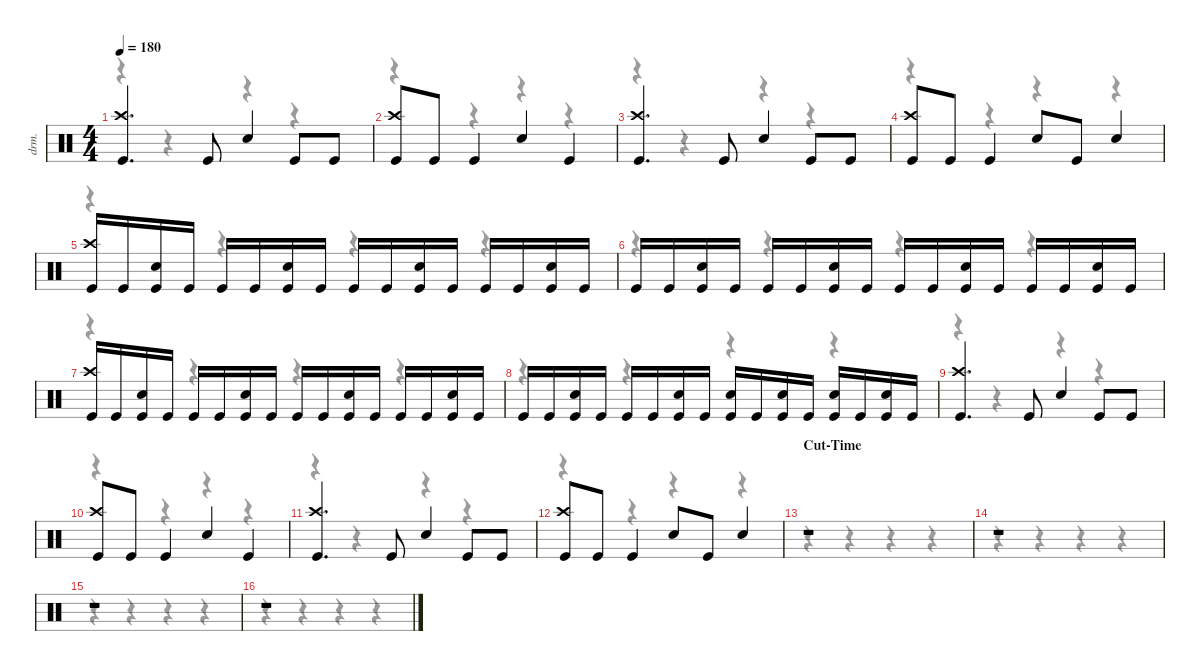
\defaultSystemsLayout 4
\hideDynamics
\bracketExtendMode nobrackets
\track ("Drums" "drm.") {instrument percussion}
\staff {score}
\articulation defaults
\voice
\ts (4 4)
\tempo 180
\clef neutral
\ks c
("Crash high (hit)" "Kick (hit)").4{d dy f} "Kick (hit)".8 "Snare (hit) 2".4 "Kick (hit)".8 "Kick (hit)".8 |
("Crash high (hit)" "Kick (hit)").8 "Kick (hit)".8 "Kick (hit)".4 "Snare (hit) 2".4 "Kick (hit)".4 |
("Crash high (hit)" "Kick (hit)").4{d} "Kick (hit)".8 "Snare (hit) 2".4 "Kick (hit)".8 "Kick (hit)".8 |
("Crash high (hit)" "Kick (hit)").8 "Kick (hit)".8 "Kick (hit)".4 "Snare (hit) 2".8 "Kick (hit)".8 "Snare (hit) 2".4 |
("Crash high (hit)" "Kick (hit)").16 "Kick (hit)".16 ("Snare (hit) 2" "Kick (hit)").16 "Kick (hit)".16 "Kick (hit)".16 "Kick (hit)".16 ("Snare (hit) 2" "Kick (hit)").16 "Kick (hit)".16 "Kick (hit)".16 "Kick (hit)".16 ("Snare (hit) 2" "Kick (hit)").16 "Kick (hit)".16 "Kick (hit)".16 "Kick (hit)".16 ("Snare (hit) 2" "Kick (hit)").16 "Kick (hit)".16 |
"Kick (hit)".16 "Kick (hit)".16 ("Snare (hit) 2" "Kick (hit)").16 "Kick (hit)".16 "Kick (hit)".16 "Kick (hit)".16 ("Snare (hit) 2" "Kick (hit)").16 "Kick (hit)".16 "Kick (hit)".16 "Kick (hit)".16 ("Snare (hit) 2" "Kick (hit)").16 "Kick (hit)".16 "Kick (hit)".16 "Kick (hit)".16 ("Snare (hit) 2" "Kick (hit)").16 "Kick (hit)".16 |
("Crash high (hit)" "Kick (hit)").16 "Kick (hit)".16 ("Snare (hit) 2" "Kick (hit)").16 "Kick (hit)".16 "Kick (hit)".16 "Kick (hit)".16 ("Snare (hit) 2" "Kick (hit)").16 "Kick (hit)".16 "Kick (hit)".16 "Kick (hit)".16 ("Snare (hit) 2" "Kick (hit)").16 "Kick (hit)".16 "Kick (hit)".16 "Kick (hit)".16 ("Snare (hit) 2" "Kick (hit)").16 "Kick (hit)".16 |
"Kick (hit)".16 "Kick (hit)".16 ("Snare (hit) 2" "Kick (hit)").16 "Kick (hit)".16 "Kick (hit)".16 "Kick (hit)".16 ("Snare (hit) 2" "Kick (hit)").16 "Kick (hit)".16 ("Snare (hit) 2" "Kick (hit)").16 "Kick (hit)".16 ("Snare (hit) 2" "Kick (hit)").16 "Kick (hit)".16 ("Snare (hit) 2" "Kick (hit)").16 "Kick (hit)".16 ("Snare (hit) 2" "Kick (hit)").16 "Kick (hit)".16 |
("Crash high (hit)" "Kick (hit)").4{d} "Kick (hit)".8 "Snare (hit) 2".4 "Kick (hit)".8 "Kick (hit)".8 |
("Crash high (hit)" "Kick (hit)").8 "Kick (hit)".8 "Kick (hit)".4 "Snare (hit) 2".4 "Kick (hit)".4 |
("Crash high (hit)" "Kick (hit)").4{d} "Kick (hit)".8 "Snare (hit) 2".4 "Kick (hit)".8 "Kick (hit)".8 |
("Crash high (hit)" "Kick (hit)").8 "Kick (hit)".8 "Kick (hit)".4 "Snare (hit) 2".8 "Kick (hit)".8 "Snare (hit) 2".4 |
\section ("" "Cut-Time")
r.1 |
r.1 |
r.1 |
r.1
\voice
\clef neutral
\ottava regular
\simile none
\ks c
r.4{dy mf} r.4 r.4 r.4 |
r.4 r.4 r.4 r.4 |
r.4 r.4 r.4 r.4 |
r.4 r.4 r.4 r.4 |
r.4 r.4 r.4 r.4 |
r.4 r.4 r.4 r.4 |
r.4 r.4 r.4 r.4 |
r.4 r.4 r.4 r.4 |
r.4 r.4 r.4 r.4 |
r.4 r.4 r.4 r.4 |
r.4 r.4 r.4 r.4 |
r.4 r.4 r.4 r.4 |
r.4 r.4 r.4 r.4 |
r.4 r.4 r.4 r.4 |
r.4 r.4 r.4 r.4 |
r.4 r.4 r.4 r.4
